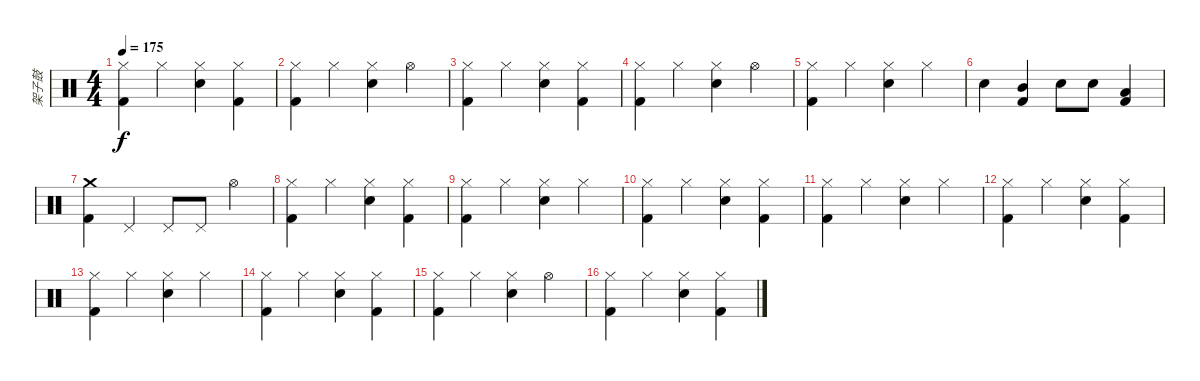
\track ("架子鼓" "架子鼓") {instrument percussion}
\staff {score}
\articulation defaults
\ts (4 4)
\tempo 175
\clef neutral
\ks c
("Hi-Hat (closed)" "Kick (hit) 2").4{dy f} "Hi-Hat (closed)".4 ("Hi-Hat (closed)" "Electric Snare (hit)").4 ("Hi-Hat (closed)" "Kick (hit) 2").4 |
("Hi-Hat (closed)" "Kick (hit) 2").4 "Hi-Hat (closed)".4 ("Hi-Hat (closed)" "Electric Snare (hit)").4 "Hi-Hat (open)".4 |
("Hi-Hat (closed)" "Kick (hit) 2").4 "Hi-Hat (closed)".4 ("Hi-Hat (closed)" "Electric Snare (hit)").4 ("Hi-Hat (closed)" "Kick (hit) 2").4 |
("Hi-Hat (closed)" "Kick (hit) 2").4 "Hi-Hat (closed)".4 ("Hi-Hat (closed)" "Electric Snare (hit)").4 "Hi-Hat (open)".4 |
("Hi-Hat (closed)" "Kick (hit) 2").4 "Hi-Hat (closed)".4 ("Hi-Hat (closed)" "Electric Snare (hit)").4 "Hi-Hat (closed)".4 |
"Electric Snare (hit)".4 ("Kick (hit) 2" "Mid Tom (hit)").4 "Electric Snare (hit)".8 "Electric Snare (hit)".8 ("Kick (hit) 2" "Low Tom (hit)").4 |
("Crash medium (hit)" "Kick (hit) 2").4 "Pedal Hi-Hat (hit)".4 "Pedal Hi-Hat (hit)".8 "Pedal Hi-Hat (hit)".8 "Hi-Hat (open)".4 |
("Hi-Hat (closed)" "Kick (hit) 2").4 "Hi-Hat (closed)".4 ("Hi-Hat (closed)" "Electric Snare (hit)").4 ("Hi-Hat (closed)" "Kick (hit) 2").4 |
("Hi-Hat (closed)" "Kick (hit) 2").4 "Hi-Hat (closed)".4 ("Hi-Hat (closed)" "Electric Snare (hit)").4 "Hi-Hat (closed)".4 |
("Hi-Hat (closed)" "Kick (hit) 2").4 "Hi-Hat (closed)".4 ("Hi-Hat (closed)" "Electric Snare (hit)").4 ("Hi-Hat (closed)" "Kick (hit) 2").4 |
("Hi-Hat (closed)" "Kick (hit) 2").4 "Hi-Hat (closed)".4 ("Hi-Hat (closed)" "Electric Snare (hit)").4 "Hi-Hat (closed)".4 |
("Hi-Hat (closed)" "Kick (hit) 2").4 "Hi-Hat (closed)".4 ("Hi-Hat (closed)" "Electric Snare (hit)").4 ("Hi-Hat (closed)" "Kick (hit) 2").4 |
("Hi-Hat (closed)" "Kick (hit) 2").4 "Hi-Hat (closed)".4 ("Hi-Hat (closed)" "Electric Snare (hit)").4 "Hi-Hat (closed)".4 |
("Hi-Hat (closed)" "Kick (hit) 2").4 "Hi-Hat (closed)".4 ("Hi-Hat (closed)" "Electric Snare (hit)").4 ("Hi-Hat (closed)" "Kick (hit) 2").4 |
("Hi-Hat (closed)" "Kick (hit) 2").4 "Hi-Hat (closed)".4 ("Hi-Hat (closed)" "Electric Snare (hit)").4 "Hi-Hat (open)".4 |
("Hi-Hat (closed)" "Kick (hit) 2").4 "Hi-Hat (closed)".4 ("Hi-Hat (closed)" "Electric Snare (hit)").4 ("Hi-Hat (closed)" "Kick (hit) 2").4
